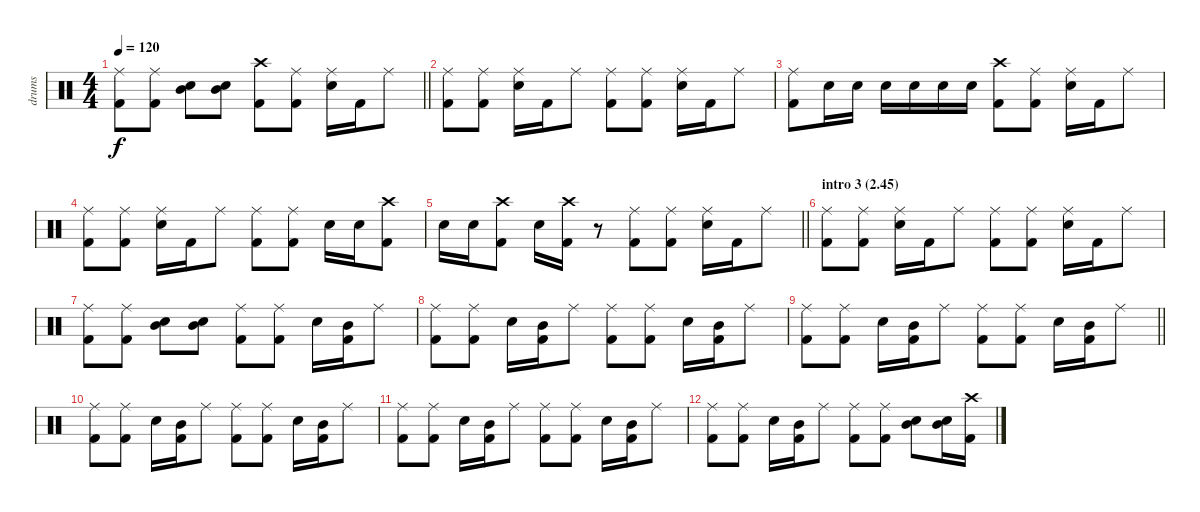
\track ("drums" "drums") {instrument percussion}
\staff {score}
\articulation defaults
\ts (4 4)
\tempo 120
\clef neutral
\barLineRight lightlight
\ks c
("Ride (middle)" "Kick (hit) 2").8{dy f} ("Ride (middle)" "Kick (hit) 2").8 ("Mid Tom (hit)" "Electric Snare (hit)").8 ("Mid Tom (hit)" "Electric Snare (hit)").8 ("Crash high (hit)" "Kick (hit) 2").8 ("Ride (middle)" "Kick (hit) 2").8 ("Ride (middle)" "Electric Snare (hit)").16 "Kick (hit) 2".16 "Ride (middle)".8 |
("Ride (middle)" "Kick (hit) 2").8 ("Ride (middle)" "Kick (hit) 2").8 ("Ride (middle)" "Electric Snare (hit)").16 "Kick (hit) 2".16 "Ride (middle)".8 ("Ride (middle)" "Kick (hit) 2").8 ("Ride (middle)" "Kick (hit) 2").8 ("Ride (middle)" "Electric Snare (hit)").16 "Kick (hit) 2".16 "Ride (middle)".8 |
("Ride (middle)" "Kick (hit) 2").8 "Electric Snare (hit)".16 "Electric Snare (hit)".16 "Electric Snare (hit)".16 "Electric Snare (hit)".16 "Electric Snare (hit)".16 "Electric Snare (hit)".16 ("Crash high (hit)" "Kick (hit) 2").8 ("Ride (middle)" "Kick (hit) 2").8 ("Ride (middle)" "Electric Snare (hit)").16 "Kick (hit) 2".16 "Ride (middle)".8 |
("Ride (middle)" "Kick (hit) 2").8 ("Ride (middle)" "Kick (hit) 2").8 ("Ride (middle)" "Electric Snare (hit)").16 "Kick (hit) 2".16 "Ride (middle)".8 ("Ride (middle)" "Kick (hit) 2").8 ("Ride (middle)" "Kick (hit) 2").8 "Electric Snare (hit)".16 "Electric Snare (hit)".16 ("Crash high (hit)" "Kick (hit) 2").8 |
\barLineRight lightlight "Electric Snare (hit)".16 "Electric Snare (hit)".16
("Crash high (hit)" "Kick (hit) 2").8 "Electric Snare (hit)".16 ("Crash high (hit)" "Kick (hit) 2").16 r.8 ("Ride (middle)" "Kick (hit) 2").8 ("Ride (middle)" "Kick (hit) 2").8 ("Ride (middle)" "Electric Snare (hit)").16 "Kick (hit) 2".16 "Ride (middle)".8 |
\section ("" "intro 3 (2.45)")
("Ride (middle)" "Kick (hit) 2").8 ("Ride (middle)" "Kick (hit) 2").8 ("Ride (middle)" "Electric Snare (hit)").16 "Kick (hit) 2".16 "Ride (middle)".8 ("Ride (middle)" "Kick (hit) 2").8 ("Ride (middle)" "Kick (hit) 2").8 ("Ride (middle)" "Electric Snare (hit)").16 "Kick (hit) 2".16 "Ride (middle)".8 |
("Ride (middle)" "Kick (hit) 2").8 ("Ride (middle)" "Kick (hit) 2").8 ("Mid Tom (hit)" "Electric Snare (hit)").8 ("Mid Tom (hit)" "Electric Snare (hit)").8 ("Ride (middle)" "Kick (hit) 2").8 ("Ride (middle)" "Kick (hit) 2").8 "Electric Snare (hit)".16 ("Mid Tom (hit)" "Kick (hit) 2").16 "Ride (middle)".8 |
("Ride (middle)" "Kick (hit) 2").8 ("Ride (middle)" "Kick (hit) 2").8 "Electric Snare (hit)".16 ("Mid Tom (hit)" "Kick (hit) 2").16 "Ride (middle)".8 ("Ride (middle)" "Kick (hit) 2").8 ("Ride (middle)" "Kick (hit) 2").8 "Electric Snare (hit)".16 ("Mid Tom (hit)" "Kick (hit) 2").16 "Ride (middle)".8 |
\barLineRight lightlight
("Ride (middle)" "Kick (hit) 2").8 ("Ride (middle)" "Kick (hit) 2").8 "Electric Snare (hit)".16 ("Mid Tom (hit)" "Kick (hit) 2").16 "Ride (middle)".8 ("Ride (middle)" "Kick (hit) 2").8 ("Ride (middle)" "Kick (hit) 2").8 "Electric Snare (hit)".16 ("Mid Tom (hit)" "Kick (hit) 2").16 "Ride (middle)".8 |
("Ride (middle)" "Kick (hit) 2").8 ("Ride (middle)" "Kick (hit) 2").8 "Electric Snare (hit)".16 ("Mid Tom (hit)" "Kick (hit) 2").16 "Ride (middle)".8 ("Ride (middle)" "Kick (hit) 2").8 ("Ride (middle)" "Kick (hit) 2").8 "Electric Snare (hit)".16 ("Mid Tom (hit)" "Kick (hit) 2").16 "Ride (middle)".8 |
("Ride (middle)" "Kick (hit) 2").8 ("Ride (middle)" "Kick (hit) 2").8 "Electric Snare (hit)".16 ("Mid Tom (hit)" "Kick (hit) 2").16 "Ride (middle)".8 ("Ride (middle)" "Kick (hit) 2").8 ("Ride (middle)" "Kick (hit) 2").8 "Electric Snare (hit)".16 ("Mid Tom (hit)" "Kick (hit) 2").16 "Ride (middle)".8 |
("Ride (middle)" "Kick (hit) 2").8 ("Ride (middle)" "Kick (hit) 2").8 "Electric Snare (hit)".16 ("Mid Tom (hit)" "Kick (hit) 2").16 "Ride (middle)".8 ("Ride (middle)" "Kick (hit) 2").8 ("Ride (middle)" "Kick (hit) 2").8 ("Mid Tom (hit)" "Electric Snare (hit)").8 ("Mid Tom (hit)" "Electric Snare (hit)").16 ("Crash high (hit)" "Kick (hit) 2").16
